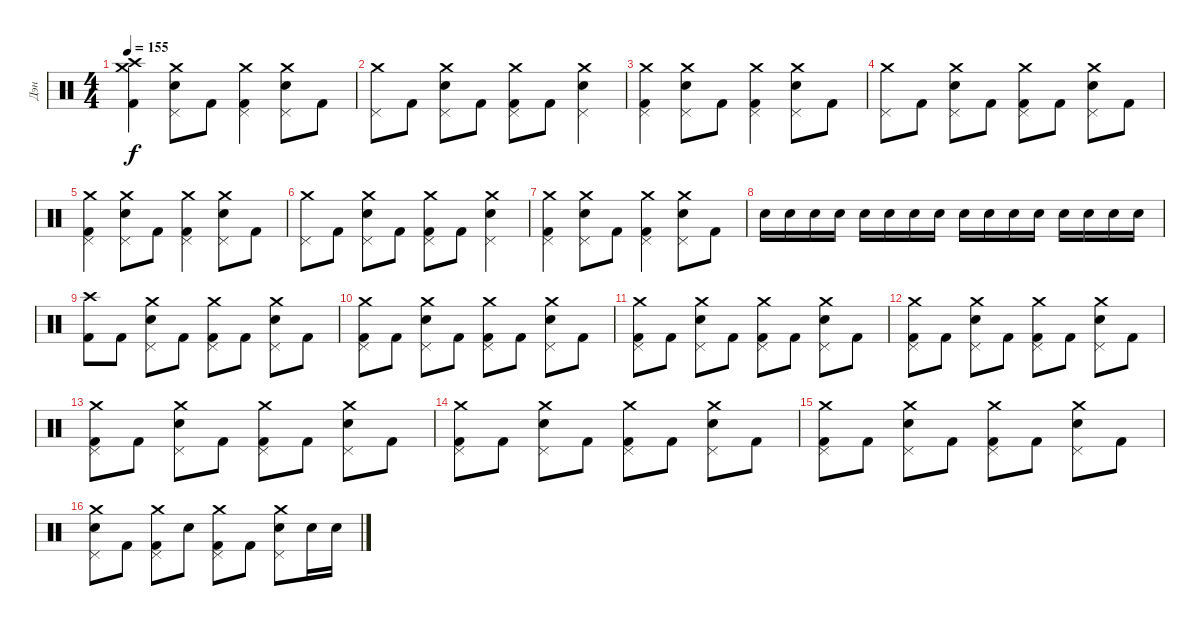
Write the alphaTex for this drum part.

\track ("Дэн" "Дэн") {instrument percussion}
\staff {score}
\articulation defaults
\ts (4 4)
\tempo 155
\clef neutral
\ks c
("Crash high (hit)" "Crash medium (hit)" "Kick (hit) 2").4{dy f} ("Crash medium (hit)" "Pedal Hi-Hat (hit)" "Snare (hit) 2").8 "Kick (hit) 2".8 ("Crash medium (hit)" "Pedal Hi-Hat (hit)" "Kick (hit) 2").4 ("Crash medium (hit)" "Pedal Hi-Hat (hit)" "Snare (hit) 2").8 "Kick (hit) 2".8 |
("Crash medium (hit)" "Pedal Hi-Hat (hit)").8 "Kick (hit) 2".8 ("Crash medium (hit)" "Pedal Hi-Hat (hit)" "Snare (hit) 2").8 "Kick (hit) 2".8 ("Crash medium (hit)" "Pedal Hi-Hat (hit)" "Kick (hit) 2").8 "Kick (hit) 2".8 ("Crash medium (hit)" "Pedal Hi-Hat (hit)" "Snare (hit) 2").4 |
("Crash medium (hit)" "Pedal Hi-Hat (hit)" "Kick (hit) 2").4 ("Crash medium (hit)" "Pedal Hi-Hat (hit)" "Snare (hit) 2").8 "Kick (hit) 2".8 ("Crash medium (hit)" "Pedal Hi-Hat (hit)" "Kick (hit) 2").4 ("Crash medium (hit)" "Pedal Hi-Hat (hit)" "Snare (hit) 2").8 "Kick (hit) 2".8 |
("Crash medium (hit)" "Pedal Hi-Hat (hit)").8 "Kick (hit) 2".8 ("Crash medium (hit)" "Pedal Hi-Hat (hit)" "Snare (hit) 2").8 "Kick (hit) 2".8 ("Crash medium (hit)" "Pedal Hi-Hat (hit)" "Kick (hit) 2").8 "Kick (hit) 2".8 ("Crash medium (hit)" "Pedal Hi-Hat (hit)" "Snare (hit) 2").8 "Kick (hit) 2".8 |
("Crash medium (hit)" "Pedal Hi-Hat (hit)" "Kick (hit) 2").4 ("Crash medium (hit)" "Pedal Hi-Hat (hit)" "Snare (hit) 2").8 "Kick (hit) 2".8 ("Crash medium (hit)" "Pedal Hi-Hat (hit)" "Kick (hit) 2").4 ("Crash medium (hit)" "Pedal Hi-Hat (hit)" "Snare (hit) 2").8 "Kick (hit) 2".8 |
("Crash medium (hit)" "Pedal Hi-Hat (hit)").8 "Kick (hit) 2".8 ("Crash medium (hit)" "Pedal Hi-Hat (hit)" "Snare (hit) 2").8 "Kick (hit) 2".8 ("Crash medium (hit)" "Pedal Hi-Hat (hit)" "Kick (hit) 2").8 "Kick (hit) 2".8 ("Crash medium (hit)" "Pedal Hi-Hat (hit)" "Snare (hit) 2").4 |
("Crash medium (hit)" "Pedal Hi-Hat (hit)" "Kick (hit) 2").4 ("Crash medium (hit)" "Pedal Hi-Hat (hit)" "Snare (hit) 2").8 "Kick (hit) 2".8 ("Crash medium (hit)" "Pedal Hi-Hat (hit)" "Kick (hit) 2").4 ("Crash medium (hit)" "Pedal Hi-Hat (hit)" "Snare (hit) 2").8 "Kick (hit) 2".8 |
"Snare (hit) 2".16 "Snare (hit) 2".16 "Snare (hit) 2".16 "Snare (hit) 2".16 "Snare (hit) 2".16 "Snare (hit) 2".16 "Snare (hit) 2".16 "Snare (hit) 2".16 "Snare (hit) 2".16 "Snare (hit) 2".16 "Snare (hit) 2".16 "Snare (hit) 2".16 "Snare (hit) 2".16 "Snare (hit) 2".16 "Snare (hit) 2".16 "Snare (hit) 2".16 |
("Crash high (hit)" "Kick (hit) 2").8 "Kick (hit) 2".8 ("Crash medium (hit)" "Pedal Hi-Hat (hit)" "Snare (hit) 2").8 "Kick (hit) 2".8 ("Crash medium (hit)" "Pedal Hi-Hat (hit)" "Kick (hit) 2").8 "Kick (hit) 2".8 ("Crash medium (hit)" "Pedal Hi-Hat (hit)" "Snare (hit) 2").8 "Kick (hit) 2".8 |
("Crash medium (hit)" "Pedal Hi-Hat (hit)" "Kick (hit) 2").8 "Kick (hit) 2".8 ("Crash medium (hit)" "Pedal Hi-Hat (hit)" "Snare (hit) 2").8 "Kick (hit) 2".8 ("Crash medium (hit)" "Pedal Hi-Hat (hit)" "Kick (hit) 2").8 "Kick (hit) 2".8 ("Crash medium (hit)" "Pedal Hi-Hat (hit)" "Snare (hit) 2").8 "Kick (hit) 2".8 |
("Crash medium (hit)" "Pedal Hi-Hat (hit)" "Kick (hit) 2").8 "Kick (hit) 2".8 ("Crash medium (hit)" "Pedal Hi-Hat (hit)" "Snare (hit) 2").8 "Kick (hit) 2".8 ("Crash medium (hit)" "Pedal Hi-Hat (hit)" "Kick (hit) 2").8 "Kick (hit) 2".8 ("Crash medium (hit)" "Pedal Hi-Hat (hit)" "Snare (hit) 2").8 "Kick (hit) 2".8 |
("Crash medium (hit)" "Pedal Hi-Hat (hit)" "Kick (hit) 2").8 "Kick (hit) 2".8 ("Crash medium (hit)" "Pedal Hi-Hat (hit)" "Snare (hit) 2").8 "Kick (hit) 2".8 ("Crash medium (hit)" "Pedal Hi-Hat (hit)" "Kick (hit) 2").8 "Kick (hit) 2".8 ("Crash medium (hit)" "Pedal Hi-Hat (hit)" "Snare (hit) 2").8 "Kick (hit) 2".8 |
("Crash medium (hit)" "Pedal Hi-Hat (hit)" "Kick (hit) 2").8 "Kick (hit) 2".8 ("Crash medium (hit)" "Pedal Hi-Hat (hit)" "Snare (hit) 2").8 "Kick (hit) 2".8 ("Crash medium (hit)" "Pedal Hi-Hat (hit)" "Kick (hit) 2").8 "Kick (hit) 2".8 ("Crash medium (hit)" "Pedal Hi-Hat (hit)" "Snare (hit) 2").8 "Kick (hit) 2".8 |
("Crash medium (hit)" "Pedal Hi-Hat (hit)" "Kick (hit) 2").8 "Kick (hit) 2".8 ("Crash medium (hit)" "Pedal Hi-Hat (hit)" "Snare (hit) 2").8 "Kick (hit) 2".8 ("Crash medium (hit)" "Pedal Hi-Hat (hit)" "Kick (hit) 2").8 "Kick (hit) 2".8 ("Crash medium (hit)" "Pedal Hi-Hat (hit)" "Snare (hit) 2").8 "Kick (hit) 2".8 |
("Crash medium (hit)" "Pedal Hi-Hat (hit)" "Kick (hit) 2").8 "Kick (hit) 2".8 ("Crash medium (hit)" "Pedal Hi-Hat (hit)" "Snare (hit) 2").8 "Kick (hit) 2".8 ("Crash medium (hit)" "Pedal Hi-Hat (hit)" "Kick (hit) 2").8 "Kick (hit) 2".8 ("Crash medium (hit)" "Pedal Hi-Hat (hit)" "Snare (hit) 2").8 "Kick (hit) 2".8 |
("Crash medium (hit)" "Pedal Hi-Hat (hit)" "Snare (hit) 2").8 "Kick (hit) 2".8 ("Crash medium (hit)" "Pedal Hi-Hat (hit)" "Kick (hit) 2").8 "Snare (hit) 2".8 ("Crash medium (hit)" "Pedal Hi-Hat (hit)" "Kick (hit) 2").8 "Kick (hit) 2".8 ("Crash medium (hit)" "Pedal Hi-Hat (hit)" "Snare (hit) 2").8 "Snare (hit) 2".16 "Snare (hit) 2".16
